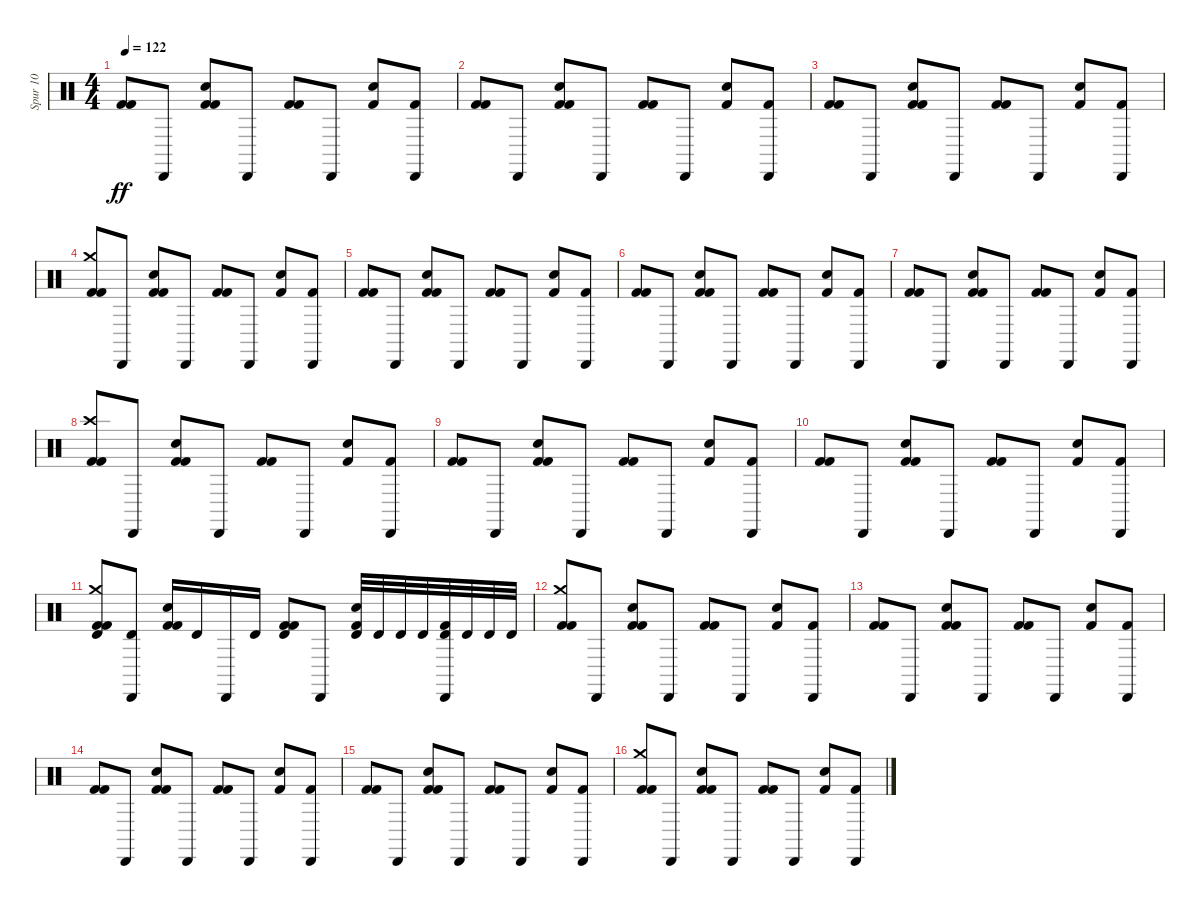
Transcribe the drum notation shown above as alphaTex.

\track ("Spur 10" "Spur 10") {instrument percussion}
\staff {score}
\articulation defaults
\ts (4 4)
\tempo 122
\clef neutral
\ks c
("Kick (hit) 2" "Kick (hit) 2").8{dy ff} "Cabasa (hit)".8 ("Kick (hit) 2" "Kick (hit) 2" "Hand Clap (hit)").8 "Cabasa (hit)".8 ("Kick (hit) 2" "Kick (hit) 2").8 "Cabasa (hit)".8 ("Hand Clap (hit)" "Kick (hit) 2").8 ("Cabasa (hit)" "Kick (hit) 2").8 |
("Kick (hit) 2" "Kick (hit) 2").8 "Cabasa (hit)".8 ("Kick (hit) 2" "Kick (hit) 2" "Hand Clap (hit)").8 "Cabasa (hit)".8 ("Kick (hit) 2" "Kick (hit) 2").8 "Cabasa (hit)".8 ("Hand Clap (hit)" "Kick (hit) 2").8 ("Cabasa (hit)" "Kick (hit) 2").8 |
("Kick (hit) 2" "Kick (hit) 2").8 "Cabasa (hit)".8 ("Kick (hit) 2" "Kick (hit) 2" "Hand Clap (hit)").8 "Cabasa (hit)".8 ("Kick (hit) 2" "Kick (hit) 2").8 "Cabasa (hit)".8 ("Hand Clap (hit)" "Kick (hit) 2").8 ("Cabasa (hit)" "Kick (hit) 2").8 |
("Crash medium (hit)" "Kick (hit) 2" "Kick (hit) 2").8 "Cabasa (hit)".8 ("Kick (hit) 2" "Kick (hit) 2" "Hand Clap (hit)").8 "Cabasa (hit)".8 ("Kick (hit) 2" "Kick (hit) 2").8 "Cabasa (hit)".8 ("Hand Clap (hit)" "Kick (hit) 2").8 ("Cabasa (hit)" "Kick (hit) 2").8 |
("Kick (hit) 2" "Kick (hit) 2").8 "Cabasa (hit)".8 ("Kick (hit) 2" "Kick (hit) 2" "Hand Clap (hit)").8 "Cabasa (hit)".8 ("Kick (hit) 2" "Kick (hit) 2").8 "Cabasa (hit)".8 ("Hand Clap (hit)" "Kick (hit) 2").8 ("Cabasa (hit)" "Kick (hit) 2").8 |
("Kick (hit) 2" "Kick (hit) 2").8 "Cabasa (hit)".8 ("Kick (hit) 2" "Kick (hit) 2" "Hand Clap (hit)").8 "Cabasa (hit)".8 ("Kick (hit) 2" "Kick (hit) 2").8 "Cabasa (hit)".8 ("Hand Clap (hit)" "Kick (hit) 2").8 ("Cabasa (hit)" "Kick (hit) 2").8 |
("Kick (hit) 2" "Kick (hit) 2").8 "Cabasa (hit)".8 ("Kick (hit) 2" "Kick (hit) 2" "Hand Clap (hit)").8 "Cabasa (hit)".8 ("Kick (hit) 2" "Kick (hit) 2").8 "Cabasa (hit)".8 ("Hand Clap (hit)" "Kick (hit) 2").8 ("Cabasa (hit)" "Kick (hit) 2").8 |
("Kick (hit) 2" "Kick (hit) 2" "Crash high (hit)").8 "Cabasa (hit)".8 ("Kick (hit) 2" "Kick (hit) 2" "Hand Clap (hit)").8 "Cabasa (hit)".8 ("Kick (hit) 2" "Kick (hit) 2").8 "Cabasa (hit)".8 ("Hand Clap (hit)" "Kick (hit) 2").8 ("Cabasa (hit)" "Kick (hit) 2").8 |
("Kick (hit) 2" "Kick (hit) 2").8 "Cabasa (hit)".8 ("Kick (hit) 2" "Kick (hit) 2" "Hand Clap (hit)").8 "Cabasa (hit)".8 ("Kick (hit) 2" "Kick (hit) 2").8 "Cabasa (hit)".8 ("Hand Clap (hit)" "Kick (hit) 2").8 ("Cabasa (hit)" "Kick (hit) 2").8 |
("Kick (hit) 2" "Kick (hit) 2").8 "Cabasa (hit)".8 ("Kick (hit) 2" "Kick (hit) 2" "Hand Clap (hit)").8 "Cabasa (hit)".8 ("Kick (hit) 2" "Kick (hit) 2").8 "Cabasa (hit)".8 ("Hand Clap (hit)" "Kick (hit) 2").8 ("Cabasa (hit)" "Kick (hit) 2").8 |
("Timbale high (hit)" "Crash medium (hit)" "Kick (hit) 2" "Kick (hit) 2").8 ("Timbale high (hit)" "Cabasa (hit)").8 ("Kick (hit) 2" "Kick (hit) 2" "Hand Clap (hit)").16 "Timbale high (hit)".16 "Cabasa (hit)".16 "Timbale high (hit)".16 ("Timbale high (hit)" "Kick (hit) 2" "Kick (hit) 2").8 "Cabasa (hit)".8 ("Hand Clap (hit)" "Timbale high (hit)" "Kick (hit) 2").32 "Timbale high (hit)".32 "Timbale high (hit)".32 "Timbale high (hit)".32 ("Timbale high (hit)" "Cabasa (hit)" "Kick (hit) 2").32 "Timbale high (hit)".32 "Timbale high (hit)".32 "Timbale high (hit)".32 |
("Crash medium (hit)" "Kick (hit) 2" "Kick (hit) 2").8 "Cabasa (hit)".8 ("Kick (hit) 2" "Kick (hit) 2" "Hand Clap (hit)").8 "Cabasa (hit)".8 ("Kick (hit) 2" "Kick (hit) 2").8 "Cabasa (hit)".8 ("Hand Clap (hit)" "Kick (hit) 2").8 ("Cabasa (hit)" "Kick (hit) 2").8 |
("Kick (hit) 2" "Kick (hit) 2").8 "Cabasa (hit)".8 ("Kick (hit) 2" "Kick (hit) 2" "Hand Clap (hit)").8 "Cabasa (hit)".8 ("Kick (hit) 2" "Kick (hit) 2").8 "Cabasa (hit)".8 ("Hand Clap (hit)" "Kick (hit) 2").8 ("Cabasa (hit)" "Kick (hit) 2").8 |
("Kick (hit) 2" "Kick (hit) 2").8 "Cabasa (hit)".8 ("Kick (hit) 2" "Kick (hit) 2" "Hand Clap (hit)").8 "Cabasa (hit)".8 ("Kick (hit) 2" "Kick (hit) 2").8 "Cabasa (hit)".8 ("Hand Clap (hit)" "Kick (hit) 2").8 ("Cabasa (hit)" "Kick (hit) 2").8 |
("Kick (hit) 2" "Kick (hit) 2").8 "Cabasa (hit)".8 ("Kick (hit) 2" "Kick (hit) 2" "Hand Clap (hit)").8 "Cabasa (hit)".8 ("Kick (hit) 2" "Kick (hit) 2").8 "Cabasa (hit)".8 ("Hand Clap (hit)" "Kick (hit) 2").8 ("Cabasa (hit)" "Kick (hit) 2").8 |
("Crash medium (hit)" "Kick (hit) 2" "Kick (hit) 2").8 "Cabasa (hit)".8 ("Kick (hit) 2" "Kick (hit) 2" "Hand Clap (hit)").8 "Cabasa (hit)".8 ("Kick (hit) 2" "Kick (hit) 2").8 "Cabasa (hit)".8 ("Hand Clap (hit)" "Kick (hit) 2").8 ("Cabasa (hit)" "Kick (hit) 2").8
